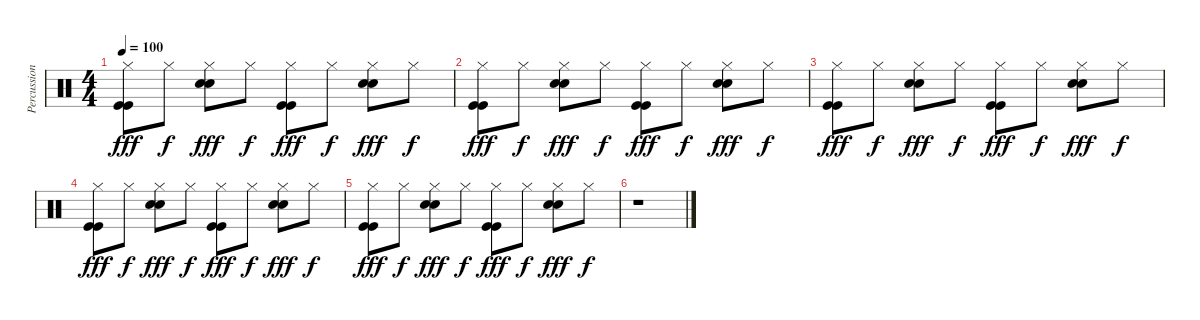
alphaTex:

\track ("Percussion" "Percussion") {instrument percussion}
\staff {score}
\articulation defaults
\ts (4 4)
\tempo 100
\clef neutral
\ks c
("Hi-Hat (closed)" "Kick (hit)" "Kick (hit)").8{dy fff} "Hi-Hat (closed)".8{dy f} ("Hi-Hat (closed)" "Snare (hit) 2" "Snare (hit) 2").8{dy fff} "Hi-Hat (closed)".8{dy f} ("Hi-Hat (closed)" "Kick (hit)" "Kick (hit)").8{dy fff} "Hi-Hat (closed)".8{dy f} ("Hi-Hat (closed)" "Snare (hit) 2" "Snare (hit) 2").8{dy fff} "Hi-Hat (closed)".8{dy f} |
("Hi-Hat (closed)" "Kick (hit)" "Kick (hit)").8{dy fff} "Hi-Hat (closed)".8{dy f} ("Hi-Hat (closed)" "Snare (hit) 2" "Snare (hit) 2").8{dy fff} "Hi-Hat (closed)".8{dy f} ("Hi-Hat (closed)" "Kick (hit)" "Kick (hit)").8{dy fff} "Hi-Hat (closed)".8{dy f} ("Hi-Hat (closed)" "Snare (hit) 2" "Snare (hit) 2").8{dy fff} "Hi-Hat (closed)".8{dy f} |
("Hi-Hat (closed)" "Kick (hit)" "Kick (hit)").8{dy fff} "Hi-Hat (closed)".8{dy f} ("Hi-Hat (closed)" "Snare (hit) 2" "Snare (hit) 2").8{dy fff} "Hi-Hat (closed)".8{dy f} ("Hi-Hat (closed)" "Kick (hit)" "Kick (hit)").8{dy fff} "Hi-Hat (closed)".8{dy f} ("Hi-Hat (closed)" "Snare (hit) 2" "Snare (hit) 2").8{dy fff} "Hi-Hat (closed)".8{dy f} |
("Hi-Hat (closed)" "Kick (hit)" "Kick (hit)").8{dy fff} "Hi-Hat (closed)".8{dy f} ("Hi-Hat (closed)" "Snare (hit) 2" "Snare (hit) 2").8{dy fff} "Hi-Hat (closed)".8{dy f} ("Hi-Hat (closed)" "Kick (hit)" "Kick (hit)").8{dy fff} "Hi-Hat (closed)".8{dy f} ("Hi-Hat (closed)" "Snare (hit) 2" "Snare (hit) 2").8{dy fff} "Hi-Hat (closed)".8{dy f} |
("Hi-Hat (closed)" "Kick (hit)" "Kick (hit)").8{dy fff} "Hi-Hat (closed)".8{dy f} ("Hi-Hat (closed)" "Snare (hit) 2" "Snare (hit) 2").8{dy fff} "Hi-Hat (closed)".8{dy f} ("Hi-Hat (closed)" "Kick (hit)" "Kick (hit)").8{dy fff} "Hi-Hat (closed)".8{dy f} ("Hi-Hat (closed)" "Snare (hit) 2" "Snare (hit) 2").8{dy fff} "Hi-Hat (closed)".8{dy f} |
r.1
